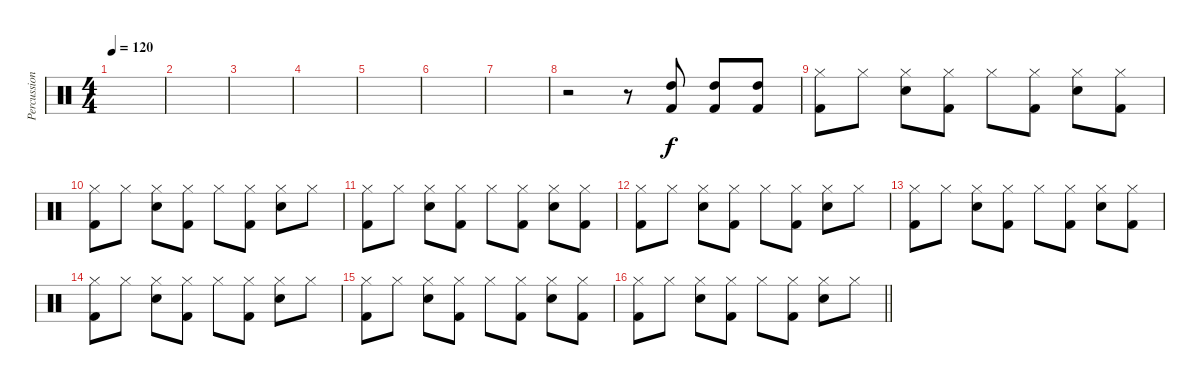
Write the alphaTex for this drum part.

\track ("Percussion" "Percussion") {instrument percussion}
\staff {score}
\articulation defaults
\ts (4 4)
\tempo 120
\clef neutral
\ks c
|
|
|
|
|
|
|
r.2 r.8 ("Kick (hit) 2" "High Tom (hit)").8 ("Kick (hit) 2" "High Tom (hit)").8 ("Kick (hit) 2" "High Tom (hit)").8 |
("Hi-Hat (closed)" "Kick (hit) 2").8 "Hi-Hat (closed)".8 ("Hi-Hat (closed)" "Snare (hit) 2").8 ("Hi-Hat (closed)" "Kick (hit) 2").8 "Hi-Hat (closed)".8 ("Hi-Hat (closed)" "Kick (hit) 2").8 ("Hi-Hat (closed)" "Snare (hit) 2").8 ("Hi-Hat (closed)" "Kick (hit) 2").8 |
("Hi-Hat (closed)" "Kick (hit) 2").8 "Hi-Hat (closed)".8 ("Hi-Hat (closed)" "Snare (hit) 2").8 ("Hi-Hat (closed)" "Kick (hit) 2").8 "Hi-Hat (closed)".8 ("Hi-Hat (closed)" "Kick (hit) 2").8 ("Hi-Hat (closed)" "Snare (hit) 2").8 "Hi-Hat (closed)".8 |
("Hi-Hat (closed)" "Kick (hit) 2").8 "Hi-Hat (closed)".8 ("Hi-Hat (closed)" "Snare (hit) 2").8 ("Hi-Hat (closed)" "Kick (hit) 2").8 "Hi-Hat (closed)".8 ("Hi-Hat (closed)" "Kick (hit) 2").8 ("Hi-Hat (closed)" "Snare (hit) 2").8 ("Hi-Hat (closed)" "Kick (hit) 2").8 |
("Hi-Hat (closed)" "Kick (hit) 2").8 "Hi-Hat (closed)".8 ("Hi-Hat (closed)" "Snare (hit) 2").8 ("Hi-Hat (closed)" "Kick (hit) 2").8 "Hi-Hat (closed)".8 ("Hi-Hat (closed)" "Kick (hit) 2").8 ("Hi-Hat (closed)" "Snare (hit) 2").8 "Hi-Hat (closed)".8 |
("Hi-Hat (closed)" "Kick (hit) 2").8 "Hi-Hat (closed)".8 ("Hi-Hat (closed)" "Snare (hit) 2").8 ("Hi-Hat (closed)" "Kick (hit) 2").8 "Hi-Hat (closed)".8 ("Hi-Hat (closed)" "Kick (hit) 2").8 ("Hi-Hat (closed)" "Snare (hit) 2").8 ("Hi-Hat (closed)" "Kick (hit) 2").8 |
("Hi-Hat (closed)" "Kick (hit) 2").8 "Hi-Hat (closed)".8 ("Hi-Hat (closed)" "Snare (hit) 2").8 ("Hi-Hat (closed)" "Kick (hit) 2").8 "Hi-Hat (closed)".8 ("Hi-Hat (closed)" "Kick (hit) 2").8 ("Hi-Hat (closed)" "Snare (hit) 2").8 "Hi-Hat (closed)".8 |
("Hi-Hat (closed)" "Kick (hit) 2").8 "Hi-Hat (closed)".8 ("Hi-Hat (closed)" "Snare (hit) 2").8 ("Hi-Hat (closed)" "Kick (hit) 2").8 "Hi-Hat (closed)".8 ("Hi-Hat (closed)" "Kick (hit) 2").8 ("Hi-Hat (closed)" "Snare (hit) 2").8 ("Hi-Hat (closed)" "Kick (hit) 2").8 |
\barLineRight lightlight
("Hi-Hat (closed)" "Kick (hit) 2").8 "Hi-Hat (closed)".8 ("Hi-Hat (closed)" "Snare (hit) 2").8 ("Hi-Hat (closed)" "Kick (hit) 2").8 "Hi-Hat (closed)".8 ("Hi-Hat (closed)" "Kick (hit) 2").8 ("Hi-Hat (closed)" "Snare (hit) 2").8 "Hi-Hat (closed)".8
